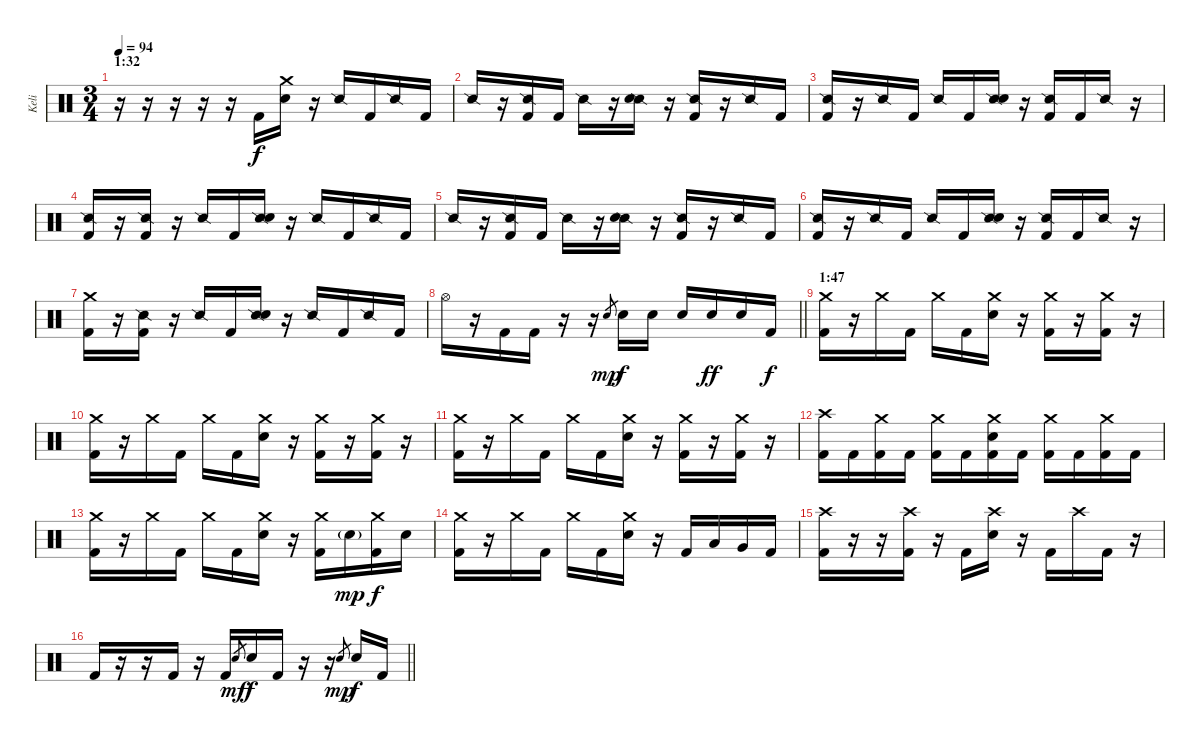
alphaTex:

\track ("Keli" "Keli") {instrument percussion}
\staff {score}
\articulation defaults
\ts (3 4)
\section ("" "1:32")
\tempo 94
\clef neutral
\ks c
r.16{dy f} r.16 r.16 r.16 r.16 "Kick (hit) 2".16 ("Crash medium (hit)" "Snare (hit) 2").16 r.16 "Snare (side stick) 2".16 "Kick (hit) 2".16 "Snare (side stick) 2".16 "Kick (hit) 2".16 |
"Snare (side stick) 2".16 r.16 ("Snare (side stick) 2" "Kick (hit) 2").16 "Kick (hit) 2".16 "Snare (side stick) 2".16 r.16 ("Snare (side stick) 2" "Snare (hit) 2").16 r.16 ("Snare (side stick) 2" "Kick (hit) 2").16 r.16 "Snare (side stick) 2".16 "Kick (hit) 2".16 |
("Snare (side stick) 2" "Kick (hit) 2").16 r.16 "Snare (side stick) 2".16 "Kick (hit) 2".16 "Snare (side stick) 2".16 "Kick (hit) 2".16 ("Snare (side stick) 2" "Snare (hit) 2").16 r.16 ("Snare (side stick) 2" "Kick (hit) 2").16 "Kick (hit) 2".16 "Snare (side stick) 2".16 r.16 |
("Snare (side stick) 2" "Kick (hit) 2").16 r.16 ("Snare (side stick) 2" "Kick (hit) 2").16 r.16 "Snare (side stick) 2".16 "Kick (hit) 2".16 ("Snare (side stick) 2" "Snare (hit) 2").16 r.16 "Snare (side stick) 2".16 "Kick (hit) 2".16 "Snare (side stick) 2".16 "Kick (hit) 2".16 |
"Snare (side stick) 2".16 r.16 ("Snare (side stick) 2" "Kick (hit) 2").16 "Kick (hit) 2".16 "Snare (side stick) 2".16 r.16 ("Snare (side stick) 2" "Snare (hit) 2").16 r.16 ("Snare (side stick) 2" "Kick (hit) 2").16 r.16 "Snare (side stick) 2".16 "Kick (hit) 2".16 |
("Snare (side stick) 2" "Kick (hit) 2").16 r.16 "Snare (side stick) 2".16 "Kick (hit) 2".16 "Snare (side stick) 2".16 "Kick (hit) 2".16 ("Snare (side stick) 2" "Snare (hit) 2").16 r.16 ("Snare (side stick) 2" "Kick (hit) 2").16 "Kick (hit) 2".16 "Snare (side stick) 2".16 r.16 |
("Crash medium (hit)" "Kick (hit) 2").16 r.16 ("Snare (side stick) 2" "Kick (hit) 2").16 r.16 "Snare (side stick) 2".16 "Kick (hit) 2".16 ("Snare (side stick) 2" "Snare (hit) 2").16 r.16 "Snare (side stick) 2".16 "Kick (hit) 2".16 "Snare (side stick) 2".16 "Kick (hit) 2".16 |
\barLineRight lightlight "Hi-Hat (open)".16
r.16 "Kick (hit) 2".16 "Kick (hit) 2".16 r.16 r.16 "Snare (hit) 2".8{gr dy mp} "Snare (hit) 2".16{dy f} "Snare (hit) 2".16 "Snare (hit) 2".16 "Snare (hit) 2".16{dy ff} "Snare (hit) 2".16 "Kick (hit) 2".16{dy f} |
\section ("" "1:47")
("Crash medium (hit)" "Kick (hit) 2").16 r.16 "Crash medium (hit)".16 "Kick (hit) 2".16 "Crash medium (hit)".16 "Kick (hit) 2".16 ("Crash medium (hit)" "Snare (hit) 2").16 r.16 ("Crash medium (hit)" "Kick (hit) 2").16 r.16 ("Crash medium (hit)" "Kick (hit) 2").16 r.16 |
("Crash medium (hit)" "Kick (hit) 2").16 r.16 "Crash medium (hit)".16 "Kick (hit) 2".16 "Crash medium (hit)".16 "Kick (hit) 2".16 ("Crash medium (hit)" "Snare (hit) 2").16 r.16 ("Crash medium (hit)" "Kick (hit) 2").16 r.16 ("Crash medium (hit)" "Kick (hit) 2").16 r.16 |
("Crash medium (hit)" "Kick (hit) 2").16 r.16 "Crash medium (hit)".16 "Kick (hit) 2".16 "Crash medium (hit)".16 "Kick (hit) 2".16 ("Crash medium (hit)" "Snare (hit) 2").16 r.16 ("Crash medium (hit)" "Kick (hit) 2").16 r.16 ("Crash medium (hit)" "Kick (hit) 2").16 r.16 |
("Crash high (hit)" "Kick (hit) 2").16 "Kick (hit) 2".16 ("Crash medium (hit)" "Kick (hit) 2").16 "Kick (hit) 2".16 ("Crash medium (hit)" "Kick (hit) 2").16 "Kick (hit) 2".16 ("Crash medium (hit)" "Snare (hit) 2" "Kick (hit) 2").16 "Kick (hit) 2".16 ("Crash medium (hit)" "Kick (hit) 2").16 "Kick (hit) 2".16 ("Crash medium (hit)" "Kick (hit) 2").16 "Kick (hit) 2".16 |
("Crash medium (hit)" "Kick (hit) 2").16 r.16 "Crash medium (hit)".16 "Kick (hit) 2".16 "Crash medium (hit)".16 "Kick (hit) 2".16 ("Crash medium (hit)" "Snare (hit) 2").16 r.16 ("Crash medium (hit)" "Kick (hit) 2").16 "Snare (hit) 2"{g}.16{dy mp} ("Crash medium (hit)" "Kick (hit) 2").16{dy f} "Snare (hit) 2".16 |
("Crash medium (hit)" "Kick (hit) 2").16 r.16 "Crash medium (hit)".16 "Kick (hit) 2".16 "Crash medium (hit)".16 "Kick (hit) 2".16 ("Crash medium (hit)" "Snare (hit) 2").16 r.16 "Kick (hit) 2".16 "Low Tom (hit)".16 "Very Low Tom (hit)".16 "Kick (hit) 2".16 |
("Crash high (hit)" "Kick (hit) 2").16 r.16 r.16 ("Crash high (hit)" "Kick (hit) 2").16 r.16 "Kick (hit) 2".16 ("Crash high (hit)" "Snare (hit) 2").16 r.16 "Kick (hit) 2".16 "Crash high (hit)".16 "Kick (hit) 2".16 r.16 |
\barLineRight lightlight "Kick (hit) 2".16
r.16 r.16 "Kick (hit) 2".16 r.16 "Kick (hit) 2".16 "Snare (hit) 2".8{gr dy mf} "Snare (hit) 2".16{dy f} "Kick (hit) 2".16 r.16 r.16 "Snare (hit) 2".8{gr dy mp} "Snare (hit) 2".16{dy f} "Kick (hit) 2".16
